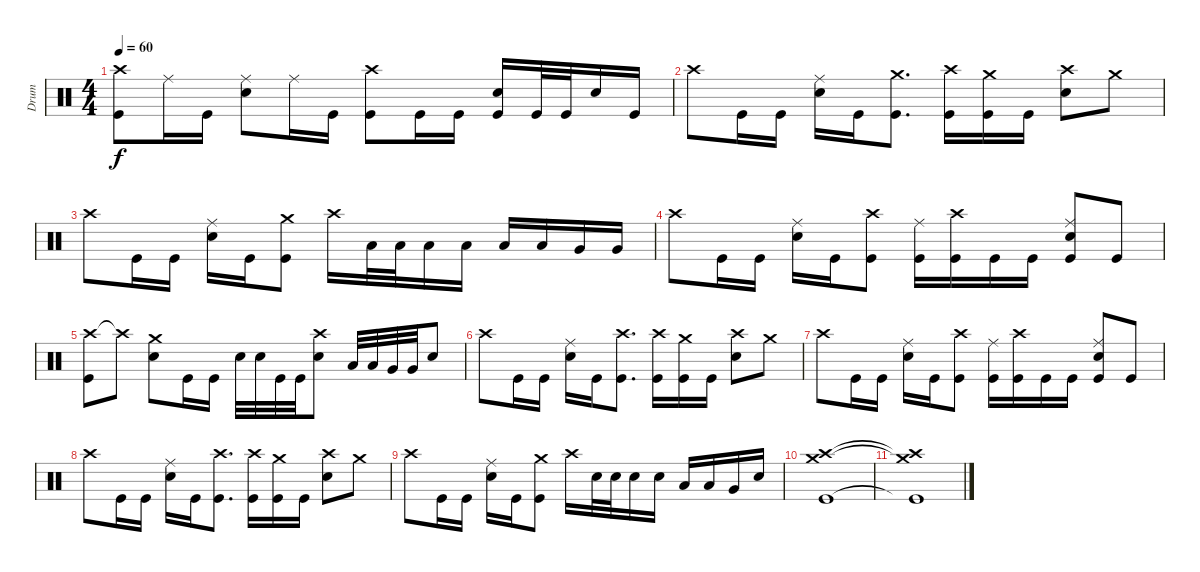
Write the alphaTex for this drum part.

\track ("Drum" "Drum") {instrument percussion}
\staff {score}
\articulation defaults
\ts (4 4)
\tempo 60
\clef neutral
\ks c
("Crash high (hit)" "Kick (hit)").8{dy f} "Ride (middle)".16 "Kick (hit)".16 ("Ride (middle)" "Snare (hit) 2").8 "Ride (middle)".16 "Kick (hit)".16 ("Crash high (hit)" "Kick (hit)").8 "Kick (hit)".16 "Kick (hit)".16 ("Snare (hit) 2" "Kick (hit)").16 "Kick (hit)".32 "Kick (hit)".32 "Snare (hit) 2".16 "Kick (hit)".16 |
"Crash high (hit)".8 "Kick (hit)".16 "Kick (hit)".16 ("Ride (middle)" "Snare (hit) 2").16 "Kick (hit)".16 ("Crash medium (hit)" "Kick (hit)").8{d} ("Crash high (hit)" "Kick (hit)").16 ("Crash medium (hit)" "Kick (hit)").16 "Kick (hit)".16 ("Crash high (hit)" "Snare (hit) 2").8 "Crash medium (hit)".8 |
"Crash high (hit)".8 "Kick (hit)".16 "Kick (hit)".16 ("Ride (middle)" "Snare (hit) 2").16 "Kick (hit)".16 ("Crash medium (hit)" "Kick (hit)").8 "Crash high (hit)".16 "Low Tom (hit)".32 "Low Tom (hit)".32 "Low Tom (hit)".16 "Low Tom (hit)".16 "Low Tom (hit)".16 "Low Tom (hit)".16 "Very Low Tom (hit)".16 "Very Low Tom (hit)".16 |
"Crash high (hit)".8 "Kick (hit)".16 "Kick (hit)".16 ("Ride (middle)" "Snare (hit) 2").16 "Kick (hit)".16 ("Crash high (hit)" "Kick (hit)").8 ("Ride (middle)" "Kick (hit)").16 ("Crash high (hit)" "Kick (hit)").16 "Kick (hit)".16 "Kick (hit)".16 ("Ride (middle)" "Snare (hit) 2" "Kick (hit)").8 "Kick (hit)".8 |
("Crash high (hit)" "Kick (hit)").8 "Crash high (hit)"{t}.8 ("Crash medium (hit)" "Snare (hit) 2").8 "Kick (hit)".16 "Kick (hit)".16 "Snare (hit) 2".32 "Snare (hit) 2".32 "Kick (hit)".32 "Kick (hit)".32 ("Crash high (hit)" "Snare (hit) 2").8 "Low Tom (hit)".32 "Low Tom (hit)".32 "Very Low Tom (hit)".32 "Very Low Tom (hit)".32 "Snare (hit) 2".8 |
"Crash high (hit)".8 "Kick (hit)".16 "Kick (hit)".16 ("Ride (middle)" "Snare (hit) 2").16 "Kick (hit)".16 ("Crash high (hit)" "Kick (hit)").8{d} ("Crash high (hit)" "Kick (hit)").16 ("Crash medium (hit)" "Kick (hit)").16 "Kick (hit)".16 ("Crash high (hit)" "Snare (hit) 2").8 "Crash medium (hit)".8 |
"Crash high (hit)".8 "Kick (hit)".16 "Kick (hit)".16 ("Ride (middle)" "Snare (hit) 2").16 "Kick (hit)".16 ("Crash high (hit)" "Kick (hit)").8 ("Ride (middle)" "Kick (hit)").16 ("Crash high (hit)" "Kick (hit)").16 "Kick (hit)".16 "Kick (hit)".16 ("Ride (middle)" "Snare (hit) 2" "Kick (hit)").8 "Kick (hit)".8 |
"Crash high (hit)".8 "Kick (hit)".16 "Kick (hit)".16 ("Ride (middle)" "Snare (hit) 2").16 "Kick (hit)".16 ("Crash high (hit)" "Kick (hit)").8{d} ("Crash high (hit)" "Kick (hit)").16 ("Crash medium (hit)" "Kick (hit)").16 "Kick (hit)".16 ("Crash high (hit)" "Snare (hit) 2").8 "Crash medium (hit)".8 |
"Crash high (hit)".8 "Kick (hit)".16 "Kick (hit)".16 ("Ride (middle)" "Snare (hit) 2").16 "Kick (hit)".16 ("Crash medium (hit)" "Kick (hit)").8 "Crash high (hit)".16 "Snare (hit) 2".32 "Snare (hit) 2".32 "Snare (hit) 2".16 "Snare (hit) 2".16 "Low Tom (hit)".16 "Low Tom (hit)".16 "Very Low Tom (hit)".16 "Snare (hit) 2".16 |
("Crash high (hit)" "Crash medium (hit)" "Kick (hit)").1 |
("Crash high (hit)"{t} "Crash medium (hit)"{t} "Kick (hit)"{t}).1
